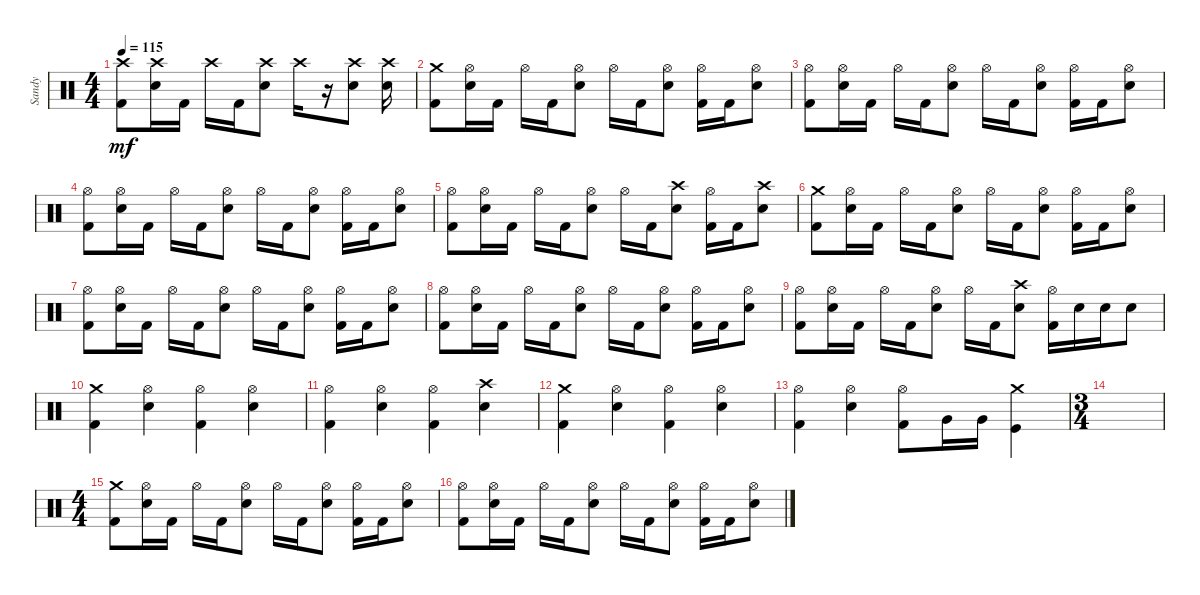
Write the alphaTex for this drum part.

\track ("Sandy" "Sandy") {instrument percussion}
\staff {score}
\articulation defaults
\ts (4 4)
\tempo 115
\clef neutral
\ks c
("Crash high (hit)" "Kick (hit) 2").8{dy mf} ("Crash high (hit)" "Snare (hit) 2").16 "Kick (hit) 2".16 "Crash high (hit)".16 "Kick (hit) 2".16 ("Crash high (hit)" "Snare (hit) 2").8 "Crash high (hit)".16 r.16 ("Crash high (hit)" "Snare (hit) 2").8 ("Crash high (hit)" "Snare (hit) 2").16 |
("Crash medium (hit)" "Kick (hit) 2").8 ("Hi-Hat (open)" "Snare (hit) 2").16 "Kick (hit) 2".16 "Hi-Hat (open)".16 "Kick (hit) 2".16 ("Hi-Hat (open)" "Snare (hit) 2").8 "Hi-Hat (open)".16 "Kick (hit) 2".16 ("Hi-Hat (open)" "Snare (hit) 2").8 ("Hi-Hat (open)" "Kick (hit) 2").16 "Kick (hit) 2".16 ("Hi-Hat (open)" "Snare (hit) 2").8 |
("Hi-Hat (open)" "Kick (hit) 2").8 ("Hi-Hat (open)" "Snare (hit) 2").16 "Kick (hit) 2".16 "Hi-Hat (open)".16 "Kick (hit) 2".16 ("Hi-Hat (open)" "Snare (hit) 2").8 "Hi-Hat (open)".16 "Kick (hit) 2".16 ("Hi-Hat (open)" "Snare (hit) 2").8 ("Hi-Hat (open)" "Kick (hit) 2").16 "Kick (hit) 2".16 ("Hi-Hat (open)" "Snare (hit) 2").8 |
("Hi-Hat (open)" "Kick (hit) 2").8 ("Hi-Hat (open)" "Snare (hit) 2").16 "Kick (hit) 2".16 "Hi-Hat (open)".16 "Kick (hit) 2".16 ("Hi-Hat (open)" "Snare (hit) 2").8 "Hi-Hat (open)".16 "Kick (hit) 2".16 ("Hi-Hat (open)" "Snare (hit) 2").8 ("Hi-Hat (open)" "Kick (hit) 2").16 "Kick (hit) 2".16 ("Hi-Hat (open)" "Snare (hit) 2").8 |
("Hi-Hat (open)" "Kick (hit) 2").8 ("Hi-Hat (open)" "Snare (hit) 2").16 "Kick (hit) 2".16 "Hi-Hat (open)".16 "Kick (hit) 2".16 ("Hi-Hat (open)" "Snare (hit) 2").8 "Hi-Hat (open)".16 "Kick (hit) 2".16 ("Crash high (hit)" "Snare (hit) 2").8 ("Hi-Hat (open)" "Kick (hit) 2").16 "Kick (hit) 2".16 ("Crash high (hit)" "Snare (hit) 2").8 |
("Crash medium (hit)" "Kick (hit) 2").8 ("Hi-Hat (open)" "Snare (hit) 2").16 "Kick (hit) 2".16 "Hi-Hat (open)".16 "Kick (hit) 2".16 ("Hi-Hat (open)" "Snare (hit) 2").8 "Hi-Hat (open)".16 "Kick (hit) 2".16 ("Hi-Hat (open)" "Snare (hit) 2").8 ("Hi-Hat (open)" "Kick (hit) 2").16 "Kick (hit) 2".16 ("Hi-Hat (open)" "Snare (hit) 2").8 |
("Hi-Hat (open)" "Kick (hit) 2").8 ("Hi-Hat (open)" "Snare (hit) 2").16 "Kick (hit) 2".16 "Hi-Hat (open)".16 "Kick (hit) 2".16 ("Hi-Hat (open)" "Snare (hit) 2").8 "Hi-Hat (open)".16 "Kick (hit) 2".16 ("Hi-Hat (open)" "Snare (hit) 2").8 ("Hi-Hat (open)" "Kick (hit) 2").16 "Kick (hit) 2".16 ("Hi-Hat (open)" "Snare (hit) 2").8 |
("Hi-Hat (open)" "Kick (hit) 2").8 ("Hi-Hat (open)" "Snare (hit) 2").16 "Kick (hit) 2".16 "Hi-Hat (open)".16 "Kick (hit) 2".16 ("Hi-Hat (open)" "Snare (hit) 2").8 "Hi-Hat (open)".16 "Kick (hit) 2".16 ("Hi-Hat (open)" "Snare (hit) 2").8 ("Hi-Hat (open)" "Kick (hit) 2").16 "Kick (hit) 2".16 ("Hi-Hat (open)" "Snare (hit) 2").8 |
("Hi-Hat (open)" "Kick (hit) 2").8 ("Hi-Hat (open)" "Snare (hit) 2").16 "Kick (hit) 2".16 "Hi-Hat (open)".16 "Kick (hit) 2".16 ("Hi-Hat (open)" "Snare (hit) 2").8 "Hi-Hat (open)".16 "Kick (hit) 2".16 ("Crash high (hit)" "Snare (hit) 2").8 ("Hi-Hat (open)" "Kick (hit) 2").16 "Snare (hit) 2".16 "Snare (hit) 2".16 "Snare (hit) 2".8 |
("Crash medium (hit)" "Kick (hit) 2").4 ("Hi-Hat (open)" "Snare (hit) 2").4 ("Hi-Hat (open)" "Kick (hit) 2").4 ("Hi-Hat (open)" "Snare (hit) 2").4 |
("Hi-Hat (open)" "Kick (hit) 2").4 ("Hi-Hat (open)" "Snare (hit) 2").4 ("Hi-Hat (open)" "Kick (hit) 2").4 ("Crash high (hit)" "Snare (hit) 2").4 |
("Crash medium (hit)" "Kick (hit) 2").4 ("Hi-Hat (open)" "Snare (hit) 2").4 ("Hi-Hat (open)" "Kick (hit) 2").4 ("Hi-Hat (open)" "Snare (hit) 2").4 |
("Hi-Hat (open)" "Kick (hit) 2").4 ("Hi-Hat (open)" "Snare (hit) 2").4 ("Hi-Hat (open)" "Kick (hit) 2").8 "Very Low Tom (hit)".16 "Very Low Tom (hit)".16 ("Crash medium (hit)" "Kick (hit)").4 |
\ts (3 4)
|
\ts (4 4)
("Crash medium (hit)" "Kick (hit) 2").8 ("Hi-Hat (open)" "Snare (hit) 2").16 "Kick (hit) 2".16 "Hi-Hat (open)".16 "Kick (hit) 2".16 ("Hi-Hat (open)" "Snare (hit) 2").8 "Hi-Hat (open)".16 "Kick (hit) 2".16 ("Hi-Hat (open)" "Snare (hit) 2").8 ("Hi-Hat (open)" "Kick (hit) 2").16 "Kick (hit) 2".16 ("Hi-Hat (open)" "Snare (hit) 2").8 |
("Hi-Hat (open)" "Kick (hit) 2").8 ("Hi-Hat (open)" "Snare (hit) 2").16 "Kick (hit) 2".16 "Hi-Hat (open)".16 "Kick (hit) 2".16 ("Hi-Hat (open)" "Snare (hit) 2").8 "Hi-Hat (open)".16 "Kick (hit) 2".16 ("Hi-Hat (open)" "Snare (hit) 2").8 ("Hi-Hat (open)" "Kick (hit) 2").16 "Kick (hit) 2".16 ("Hi-Hat (open)" "Snare (hit) 2").8
